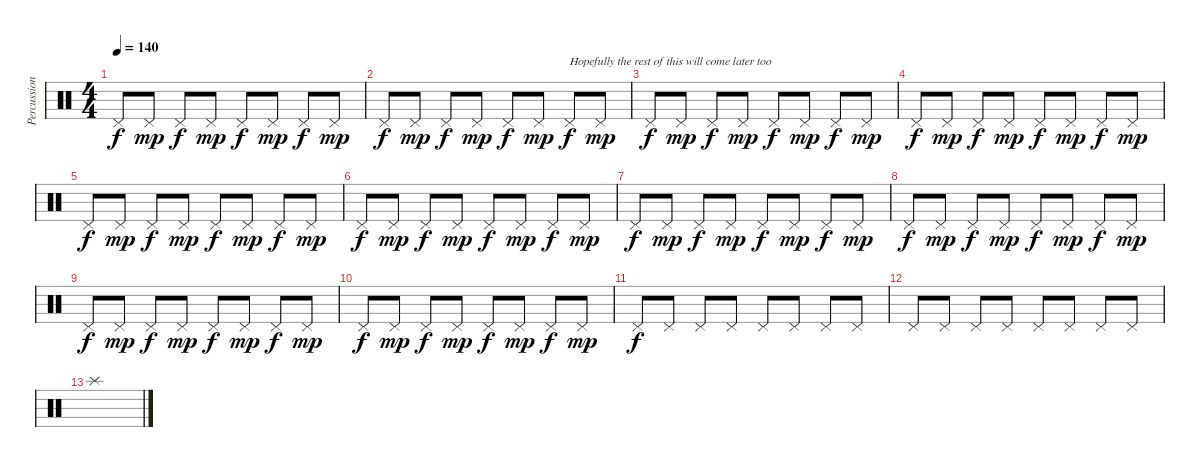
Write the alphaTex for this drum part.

\track ("Percussion" "Percussion") {instrument percussion}
\staff {score}
\articulation defaults
\ts (4 4)
\tempo 140
\clef neutral
\ks c "Pedal Hi-Hat (hit)".8{dy f} "Pedal Hi-Hat (hit)".8{dy mp} "Pedal Hi-Hat (hit)".8{dy f} "Pedal Hi-Hat (hit)".8{dy mp} "Pedal Hi-Hat (hit)".8{dy f} "Pedal Hi-Hat (hit)".8{dy mp} "Pedal Hi-Hat (hit)".8{dy f} "Pedal Hi-Hat (hit)".8{dy mp}
|
"Pedal Hi-Hat (hit)".8{dy f} "Pedal Hi-Hat (hit)".8{dy mp} "Pedal Hi-Hat (hit)".8{dy f} "Pedal Hi-Hat (hit)".8{dy mp} "Pedal Hi-Hat (hit)".8{dy f} "Pedal Hi-Hat (hit)".8{dy mp} "Pedal Hi-Hat (hit)".8{txt "Hopefully the rest of this will come later too" dy f} "Pedal Hi-Hat (hit)".8{dy mp} |
"Pedal Hi-Hat (hit)".8{dy f} "Pedal Hi-Hat (hit)".8{dy mp} "Pedal Hi-Hat (hit)".8{dy f} "Pedal Hi-Hat (hit)".8{dy mp} "Pedal Hi-Hat (hit)".8{dy f} "Pedal Hi-Hat (hit)".8{dy mp} "Pedal Hi-Hat (hit)".8{dy f} "Pedal Hi-Hat (hit)".8{dy mp} |
"Pedal Hi-Hat (hit)".8{dy f} "Pedal Hi-Hat (hit)".8{dy mp} "Pedal Hi-Hat (hit)".8{dy f} "Pedal Hi-Hat (hit)".8{dy mp} "Pedal Hi-Hat (hit)".8{dy f} "Pedal Hi-Hat (hit)".8{dy mp} "Pedal Hi-Hat (hit)".8{dy f} "Pedal Hi-Hat (hit)".8{dy mp} |
"Pedal Hi-Hat (hit)".8{dy f} "Pedal Hi-Hat (hit)".8{dy mp} "Pedal Hi-Hat (hit)".8{dy f} "Pedal Hi-Hat (hit)".8{dy mp} "Pedal Hi-Hat (hit)".8{dy f} "Pedal Hi-Hat (hit)".8{dy mp} "Pedal Hi-Hat (hit)".8{dy f} "Pedal Hi-Hat (hit)".8{dy mp} |
"Pedal Hi-Hat (hit)".8{dy f} "Pedal Hi-Hat (hit)".8{dy mp} "Pedal Hi-Hat (hit)".8{dy f} "Pedal Hi-Hat (hit)".8{dy mp} "Pedal Hi-Hat (hit)".8{dy f} "Pedal Hi-Hat (hit)".8{dy mp} "Pedal Hi-Hat (hit)".8{dy f} "Pedal Hi-Hat (hit)".8{dy mp} |
"Pedal Hi-Hat (hit)".8{dy f} "Pedal Hi-Hat (hit)".8{dy mp} "Pedal Hi-Hat (hit)".8{dy f} "Pedal Hi-Hat (hit)".8{dy mp} "Pedal Hi-Hat (hit)".8{dy f} "Pedal Hi-Hat (hit)".8{dy mp} "Pedal Hi-Hat (hit)".8{dy f} "Pedal Hi-Hat (hit)".8{dy mp} |
"Pedal Hi-Hat (hit)".8{dy f} "Pedal Hi-Hat (hit)".8{dy mp} "Pedal Hi-Hat (hit)".8{dy f} "Pedal Hi-Hat (hit)".8{dy mp} "Pedal Hi-Hat (hit)".8{dy f} "Pedal Hi-Hat (hit)".8{dy mp} "Pedal Hi-Hat (hit)".8{dy f} "Pedal Hi-Hat (hit)".8{dy mp} |
"Pedal Hi-Hat (hit)".8{dy f} "Pedal Hi-Hat (hit)".8{dy mp} "Pedal Hi-Hat (hit)".8{dy f} "Pedal Hi-Hat (hit)".8{dy mp} "Pedal Hi-Hat (hit)".8{dy f} "Pedal Hi-Hat (hit)".8{dy mp} "Pedal Hi-Hat (hit)".8{dy f} "Pedal Hi-Hat (hit)".8{dy mp} |
"Pedal Hi-Hat (hit)".8{dy f} "Pedal Hi-Hat (hit)".8{dy mp} "Pedal Hi-Hat (hit)".8{dy f} "Pedal Hi-Hat (hit)".8{dy mp} "Pedal Hi-Hat (hit)".8{dy f} "Pedal Hi-Hat (hit)".8{dy mp} "Pedal Hi-Hat (hit)".8{dy f} "Pedal Hi-Hat (hit)".8{dy mp} |
"Pedal Hi-Hat (hit)".8{dy f} "Pedal Hi-Hat (hit)".8 "Pedal Hi-Hat (hit)".8 "Pedal Hi-Hat (hit)".8 "Pedal Hi-Hat (hit)".8 "Pedal Hi-Hat (hit)".8 "Pedal Hi-Hat (hit)".8 "Pedal Hi-Hat (hit)".8 |
"Pedal Hi-Hat (hit)".8 "Pedal Hi-Hat (hit)".8 "Pedal Hi-Hat (hit)".8 "Pedal Hi-Hat (hit)".8 "Pedal Hi-Hat (hit)".8 "Pedal Hi-Hat (hit)".8 "Pedal Hi-Hat (hit)".8 "Pedal Hi-Hat (hit)".8 |
"Splash (hit)".1
